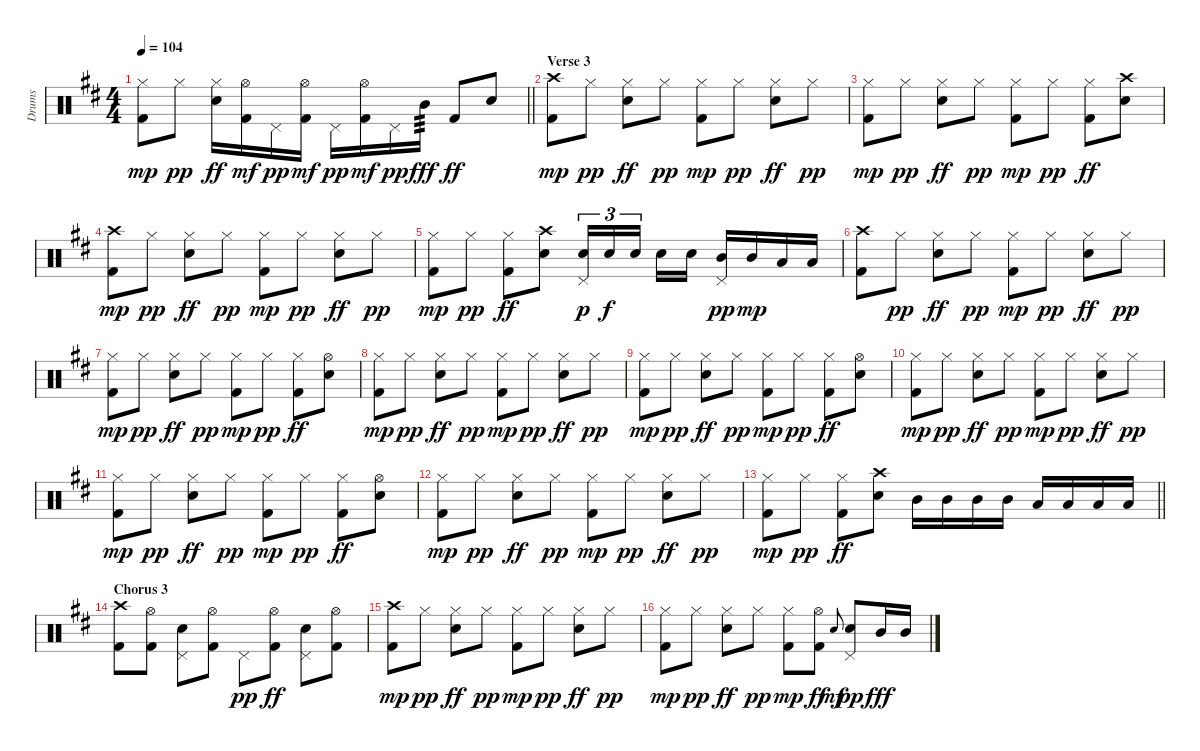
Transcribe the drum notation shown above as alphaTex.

\track ("Drums" "Drums") {instrument percussion}
\staff {score}
\articulation defaults
\ts (4 4)
\tempo 104
\clef neutral
\barLineRight lightlight
\ks bminor
("Hi-Hat (closed)" "Kick (hit) 2").8{dy mp} "Hi-Hat (closed)".8{dy pp} ("Hi-Hat (closed)" "Electric Snare (hit)").16{dy ff} ("Kick (hit) 2" "Hi-Hat (open)").16{dy mf} "Pedal Hi-Hat (hit)".16{dy pp} ("Kick (hit) 2" "Hi-Hat (open)").16{dy mf} "Pedal Hi-Hat (hit)".16{dy pp} ("Kick (hit) 2" "Hi-Hat (open)").16{dy mf} "Pedal Hi-Hat (hit)".16{dy pp} "Mid Tom (hit)".16{tp 3 dy fff} "Kick (hit) 2".8{dy ff} "Electric Snare (hit)".8 |
\section ("" "Verse 3")
("Crash high (hit)" "Kick (hit) 2").8{dy mp} "Hi-Hat (closed)".8{dy pp} ("Hi-Hat (closed)" "Electric Snare (hit)").8{dy ff} "Hi-Hat (closed)".8{dy pp} ("Hi-Hat (closed)" "Kick (hit) 2").8{dy mp} "Hi-Hat (closed)".8{dy pp} ("Hi-Hat (closed)" "Electric Snare (hit)").8{dy ff} "Hi-Hat (closed)".8{dy pp} |
("Hi-Hat (closed)" "Kick (hit) 2").8{dy mp} "Hi-Hat (closed)".8{dy pp} ("Hi-Hat (closed)" "Electric Snare (hit)").8{dy ff} "Hi-Hat (closed)".8{dy pp} ("Hi-Hat (closed)" "Kick (hit) 2").8{dy mp} "Hi-Hat (closed)".8{dy pp} ("Hi-Hat (closed)" "Kick (hit) 2").8{dy ff} ("Crash high (hit)" "Electric Snare (hit)").8 |
("Crash high (hit)" "Kick (hit) 2").8{dy mp} "Hi-Hat (closed)".8{dy pp} ("Hi-Hat (closed)" "Electric Snare (hit)").8{dy ff} "Hi-Hat (closed)".8{dy pp} ("Hi-Hat (closed)" "Kick (hit) 2").8{dy mp} "Hi-Hat (closed)".8{dy pp} ("Hi-Hat (closed)" "Electric Snare (hit)").8{dy ff} "Hi-Hat (closed)".8{dy pp} |
("Hi-Hat (closed)" "Kick (hit) 2").8{dy mp} "Hi-Hat (closed)".8{dy pp} ("Hi-Hat (closed)" "Kick (hit) 2").8{dy ff} ("Crash high (hit)" "Electric Snare (hit)").8 ("Electric Snare (hit)" "Pedal Hi-Hat (hit)").16{tu (3 2) dy p} "Electric Snare (hit)".16{tu (3 2) dy f} "Electric Snare (hit)".16{tu (3 2) beam splitsecondary} "Electric Snare (hit)".16 "Electric Snare (hit)".16 ("Mid Tom (hit)" "Pedal Hi-Hat (hit)").16{dy pp} "Mid Tom (hit)".16{dy mp} "Low Tom (hit)".16 "Low Tom (hit)".16 |
("Crash high (hit)" "Kick (hit) 2").8 "Hi-Hat (closed)".8{dy pp} ("Hi-Hat (closed)" "Electric Snare (hit)").8{dy ff} "Hi-Hat (closed)".8{dy pp} ("Hi-Hat (closed)" "Kick (hit) 2").8{dy mp} "Hi-Hat (closed)".8{dy pp} ("Hi-Hat (closed)" "Electric Snare (hit)").8{dy ff} "Hi-Hat (closed)".8{dy pp} |
("Hi-Hat (closed)" "Kick (hit) 2").8{dy mp} "Hi-Hat (closed)".8{dy pp} ("Hi-Hat (closed)" "Electric Snare (hit)").8{dy ff} "Hi-Hat (closed)".8{dy pp} ("Hi-Hat (closed)" "Kick (hit) 2").8{dy mp} "Hi-Hat (closed)".8{dy pp} ("Hi-Hat (closed)" "Kick (hit) 2").8{dy ff} ("Hi-Hat (open)" "Electric Snare (hit)").8 |
("Hi-Hat (closed)" "Kick (hit) 2").8{dy mp} "Hi-Hat (closed)".8{dy pp} ("Hi-Hat (closed)" "Electric Snare (hit)").8{dy ff} "Hi-Hat (closed)".8{dy pp} ("Hi-Hat (closed)" "Kick (hit) 2").8{dy mp} "Hi-Hat (closed)".8{dy pp} ("Hi-Hat (closed)" "Electric Snare (hit)").8{dy ff} "Hi-Hat (closed)".8{dy pp} |
("Hi-Hat (closed)" "Kick (hit) 2").8{dy mp} "Hi-Hat (closed)".8{dy pp} ("Hi-Hat (closed)" "Electric Snare (hit)").8{dy ff} "Hi-Hat (closed)".8{dy pp} ("Hi-Hat (closed)" "Kick (hit) 2").8{dy mp} "Hi-Hat (closed)".8{dy pp} ("Hi-Hat (closed)" "Kick (hit) 2").8{dy ff} ("Hi-Hat (open)" "Electric Snare (hit)").8 |
("Hi-Hat (closed)" "Kick (hit) 2").8{dy mp} "Hi-Hat (closed)".8{dy pp} ("Hi-Hat (closed)" "Electric Snare (hit)").8{dy ff} "Hi-Hat (closed)".8{dy pp} ("Hi-Hat (closed)" "Kick (hit) 2").8{dy mp} "Hi-Hat (closed)".8{dy pp} ("Hi-Hat (closed)" "Electric Snare (hit)").8{dy ff} "Hi-Hat (closed)".8{dy pp} |
("Hi-Hat (closed)" "Kick (hit) 2").8{dy mp} "Hi-Hat (closed)".8{dy pp} ("Hi-Hat (closed)" "Electric Snare (hit)").8{dy ff} "Hi-Hat (closed)".8{dy pp} ("Hi-Hat (closed)" "Kick (hit) 2").8{dy mp} "Hi-Hat (closed)".8{dy pp} ("Hi-Hat (closed)" "Kick (hit) 2").8{dy ff} ("Hi-Hat (open)" "Electric Snare (hit)").8 |
("Hi-Hat (closed)" "Kick (hit) 2").8{dy mp} "Hi-Hat (closed)".8{dy pp} ("Hi-Hat (closed)" "Electric Snare (hit)").8{dy ff} "Hi-Hat (closed)".8{dy pp} ("Hi-Hat (closed)" "Kick (hit) 2").8{dy mp} "Hi-Hat (closed)".8{dy pp} ("Hi-Hat (closed)" "Electric Snare (hit)").8{dy ff} "Hi-Hat (closed)".8{dy pp} |
\barLineRight lightlight
("Hi-Hat (closed)" "Kick (hit) 2").8{dy mp} "Hi-Hat (closed)".8{dy pp} ("Hi-Hat (closed)" "Kick (hit) 2").8{dy ff} ("Crash high (hit)" "Electric Snare (hit)").8 "Mid Tom (hit)".16 "Mid Tom (hit)".16 "Mid Tom (hit)".16 "Mid Tom (hit)".16 "Low Tom (hit)".16 "Low Tom (hit)".16 "Low Tom (hit)".16 "Low Tom (hit)".16 |
\section ("" "Chorus 3")
("Crash high (hit)" "Kick (hit) 2").8 ("Hi-Hat (open)" "Kick (hit) 2").8 ("Pedal Hi-Hat (hit)" "Electric Snare (hit)").8 ("Hi-Hat (open)" "Kick (hit) 2").8 "Pedal Hi-Hat (hit)".8{dy pp} ("Hi-Hat (open)" "Kick (hit) 2").8{dy ff} ("Pedal Hi-Hat (hit)" "Electric Snare (hit)").8 ("Hi-Hat (open)" "Kick (hit) 2").8 |
("Crash high (hit)" "Kick (hit) 2").8{dy mp} "Hi-Hat (closed)".8{dy pp} ("Hi-Hat (closed)" "Electric Snare (hit)").8{dy ff} "Hi-Hat (closed)".8{dy pp} ("Hi-Hat (closed)" "Kick (hit) 2").8{dy mp} "Hi-Hat (closed)".8{dy pp} ("Hi-Hat (closed)" "Electric Snare (hit)").8{dy ff} "Hi-Hat (closed)".8{dy pp} |
("Hi-Hat (closed)" "Kick (hit) 2").8{dy mp} "Hi-Hat (closed)".8{dy pp} ("Hi-Hat (closed)" "Electric Snare (hit)").8{dy ff} "Hi-Hat (closed)".8{dy pp} ("Hi-Hat (closed)" "Kick (hit) 2").8{dy mp} ("Hi-Hat (open)" "Kick (hit) 2").8{dy ff} "Electric Snare (hit)".8{gr onbeat dy mf} ("Electric Snare (hit)" "Pedal Hi-Hat (hit)").8{dy pp} "Mid Tom (hit)".16{dy fff} "Mid Tom (hit)".16
